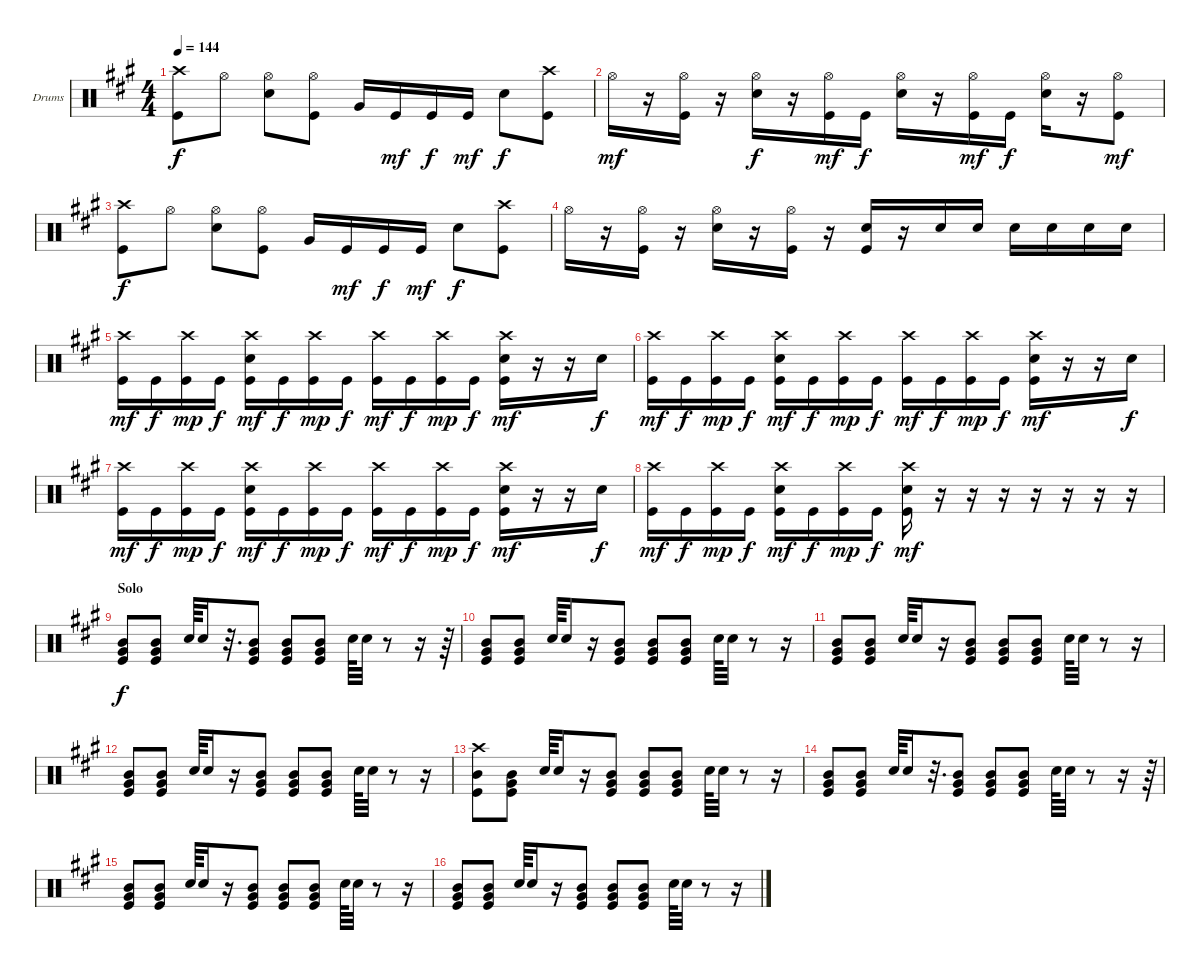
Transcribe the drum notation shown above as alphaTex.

\defaultSystemsLayout 4
\bracketExtendMode groupsimilarinstruments
\firstSystemTrackNameOrientation horizontal
\otherSystemsTrackNameOrientation horizontal
\track ("Drumkit" "Drums") {instrument percussion}
\staff {score}
\articulation defaults
\ts (4 4)
\tempo 144
\clef neutral
\scale
1.05801
\ks a
("Crash high (hit)" "Kick (hit)").8{dy f} "Hi-Hat (open)".8 ("Hi-Hat (open)" "Snare (hit) 2").8 ("Hi-Hat (open)" "Kick (hit)").8 "Very Low Tom (hit)".16 "Kick (hit)".16{dy mf} "Kick (hit)".16{dy f} "Kick (hit)".16{dy mf} "Snare (hit) 2".8{dy f} ("Crash high (hit)" "Kick (hit)").8 |
\scale
0.941992 "Hi-Hat (open)".16{dy mf} r.16 ("Hi-Hat (open)" "Kick (hit)").16 r.16 ("Hi-Hat (open)" "Snare (hit) 2").16{dy f} r.16 ("Hi-Hat (open)" "Kick (hit)").16{dy mf} "Kick (hit)".16{dy f} ("Hi-Hat (open)" "Snare (hit) 2").16 r.16 ("Hi-Hat (open)" "Kick (hit)").16{dy mf} "Kick (hit)".16{dy f} ("Hi-Hat (open)" "Snare (hit) 2").16 r.16 ("Hi-Hat (open)" "Kick (hit)").8{dy mf} |
\scale
1.05801 ("Crash high (hit)" "Kick (hit)").8{dy f} "Hi-Hat (open)".8 ("Hi-Hat (open)" "Snare (hit) 2").8 ("Hi-Hat (open)" "Kick (hit)").8 "Very Low Tom (hit)".16 "Kick (hit)".16{dy mf} "Kick (hit)".16{dy f} "Kick (hit)".16{dy mf} "Snare (hit) 2".8{dy f} ("Crash high (hit)" "Kick (hit)").8 |
\scale
0.941992 "Hi-Hat (open)".16 r.16 ("Hi-Hat (open)" "Kick (hit)").16 r.16 ("Hi-Hat (open)" "Snare (hit) 2").16 r.16 ("Hi-Hat (open)" "Kick (hit)").16 r.16 ("Snare (hit) 2" "Kick (hit)").16 r.16 "Snare (hit) 2".16 "Snare (hit) 2".16 "Snare (hit) 2".16 "Snare (hit) 2".16 "Snare (hit) 2".16 "Snare (hit) 2".16 |
\scale
1.05801 ("Crash high (hit)" "Kick (hit)").16{dy mf} "Kick (hit)".16{dy f} ("Crash high (hit)" "Kick (hit)").16{dy mp} "Kick (hit)".16{dy f} ("Crash high (hit)" "Snare (hit) 2" "Kick (hit)").16{dy mf} "Kick (hit)".16{dy f} ("Crash high (hit)" "Kick (hit)").16{dy mp} "Kick (hit)".16{dy f} ("Crash high (hit)" "Kick (hit)").16{dy mf} "Kick (hit)".16{dy f} ("Crash high (hit)" "Kick (hit)").16{dy mp} "Kick (hit)".16{dy f} ("Crash high (hit)" "Snare (hit) 2" "Kick (hit)").16{dy mf} r.16 r.16 "Snare (hit) 2".16{dy f} |
\scale
0.941992 ("Crash high (hit)" "Kick (hit)").16{dy mf} "Kick (hit)".16{dy f} ("Crash high (hit)" "Kick (hit)").16{dy mp} "Kick (hit)".16{dy f} ("Crash high (hit)" "Snare (hit) 2" "Kick (hit)").16{dy mf} "Kick (hit)".16{dy f} ("Crash high (hit)" "Kick (hit)").16{dy mp} "Kick (hit)".16{dy f} ("Crash high (hit)" "Kick (hit)").16{dy mf} "Kick (hit)".16{dy f} ("Crash high (hit)" "Kick (hit)").16{dy mp} "Kick (hit)".16{dy f} ("Crash high (hit)" "Snare (hit) 2" "Kick (hit)").16{dy mf} r.16 r.16 "Snare (hit) 2".16{dy f} |
\scale
1.05801 ("Crash high (hit)" "Kick (hit)").16{dy mf} "Kick (hit)".16{dy f} ("Crash high (hit)" "Kick (hit)").16{dy mp} "Kick (hit)".16{dy f} ("Crash high (hit)" "Snare (hit) 2" "Kick (hit)").16{dy mf} "Kick (hit)".16{dy f} ("Crash high (hit)" "Kick (hit)").16{dy mp} "Kick (hit)".16{dy f} ("Crash high (hit)" "Kick (hit)").16{dy mf} "Kick (hit)".16{dy f} ("Crash high (hit)" "Kick (hit)").16{dy mp} "Kick (hit)".16{dy f} ("Crash high (hit)" "Snare (hit) 2" "Kick (hit)").16{dy mf} r.16 r.16 "Snare (hit) 2".16{dy f} |
\scale
0.941992 ("Crash high (hit)" "Kick (hit)").16{dy mf} "Kick (hit)".16{dy f} ("Crash high (hit)" "Kick (hit)").16{dy mp} "Kick (hit)".16{dy f} ("Crash high (hit)" "Snare (hit) 2" "Kick (hit)").16{dy mf} "Kick (hit)".16{dy f} ("Crash high (hit)" "Kick (hit)").16{dy mp} "Kick (hit)".16{dy f} ("Crash high (hit)" "Snare (hit) 2" "Kick (hit)").16{dy mf} r.16 r.16 r.16 r.16 r.16 r.16 r.16 |
\section ("" "Solo")
\scale
1.05801 ("Mid Tom (hit)" "Very Low Tom (hit)" "Kick (hit)").8{dy f} ("Mid Tom (hit)" "Very Low Tom (hit)" "Kick (hit)").8 "Snare (hit) 2".64 "Snare (hit) 2".16 r.32{d} ("Mid Tom (hit)" "Very Low Tom (hit)" "Kick (hit)").8 ("Mid Tom (hit)" "Very Low Tom (hit)" "Kick (hit)").8 ("Mid Tom (hit)" "Very Low Tom (hit)" "Kick (hit)").8 "Snare (hit) 2".64 "Snare (hit) 2".32 r.8 r.16 r.64 |
\scale
0.941992 ("Mid Tom (hit)" "Very Low Tom (hit)" "Kick (hit)").8 ("Mid Tom (hit)" "Very Low Tom (hit)" "Kick (hit)").8 "Snare (hit) 2".64 "Snare (hit) 2".16 r.16 ("Mid Tom (hit)" "Very Low Tom (hit)" "Kick (hit)").8 ("Mid Tom (hit)" "Very Low Tom (hit)" "Kick (hit)").8 ("Mid Tom (hit)" "Very Low Tom (hit)" "Kick (hit)").8 "Snare (hit) 2".64 "Snare (hit) 2".32 r.8 r.16 |
\scale
1.05801 ("Mid Tom (hit)" "Very Low Tom (hit)" "Kick (hit)").8 ("Mid Tom (hit)" "Very Low Tom (hit)" "Kick (hit)").8 "Snare (hit) 2".64 "Snare (hit) 2".16 r.16 ("Mid Tom (hit)" "Very Low Tom (hit)" "Kick (hit)").8 ("Mid Tom (hit)" "Very Low Tom (hit)" "Kick (hit)").8 ("Mid Tom (hit)" "Very Low Tom (hit)" "Kick (hit)").8 "Snare (hit) 2".64 "Snare (hit) 2".32 r.8 r.16 |
\scale
0.941992 ("Mid Tom (hit)" "Very Low Tom (hit)" "Kick (hit)").8 ("Mid Tom (hit)" "Very Low Tom (hit)" "Kick (hit)").8 "Snare (hit) 2".64 "Snare (hit) 2".16 r.16 ("Mid Tom (hit)" "Very Low Tom (hit)" "Kick (hit)").8 ("Mid Tom (hit)" "Very Low Tom (hit)" "Kick (hit)").8 ("Mid Tom (hit)" "Very Low Tom (hit)" "Kick (hit)").8 "Snare (hit) 2".64 "Snare (hit) 2".32 r.8 r.16 |
\scale
1.05801 ("Crash high (hit)" "Mid Tom (hit)" "Kick (hit)").8 ("Mid Tom (hit)" "Very Low Tom (hit)" "Kick (hit)").8 "Snare (hit) 2".64 "Snare (hit) 2".16 r.16 ("Mid Tom (hit)" "Very Low Tom (hit)" "Kick (hit)").8 ("Mid Tom (hit)" "Very Low Tom (hit)" "Kick (hit)").8 ("Mid Tom (hit)" "Very Low Tom (hit)" "Kick (hit)").8 "Snare (hit) 2".64 "Snare (hit) 2".32 r.8 r.16 |
\scale
0.941992 ("Mid Tom (hit)" "Very Low Tom (hit)" "Kick (hit)").8 ("Mid Tom (hit)" "Very Low Tom (hit)" "Kick (hit)").8 "Snare (hit) 2".64 "Snare (hit) 2".16 r.32{d} ("Mid Tom (hit)" "Very Low Tom (hit)" "Kick (hit)").8 ("Mid Tom (hit)" "Very Low Tom (hit)" "Kick (hit)").8 ("Mid Tom (hit)" "Very Low Tom (hit)" "Kick (hit)").8 "Snare (hit) 2".64 "Snare (hit) 2".32 r.8 r.16 r.64 |
\scale
1.05801 ("Mid Tom (hit)" "Very Low Tom (hit)" "Kick (hit)").8 ("Mid Tom (hit)" "Very Low Tom (hit)" "Kick (hit)").8 "Snare (hit) 2".64 "Snare (hit) 2".16 r.16 ("Mid Tom (hit)" "Very Low Tom (hit)" "Kick (hit)").8 ("Mid Tom (hit)" "Very Low Tom (hit)" "Kick (hit)").8 ("Mid Tom (hit)" "Very Low Tom (hit)" "Kick (hit)").8 "Snare (hit) 2".64 "Snare (hit) 2".32 r.8 r.16 |
\scale
0.941992 ("Mid Tom (hit)" "Very Low Tom (hit)" "Kick (hit)").8 ("Mid Tom (hit)" "Very Low Tom (hit)" "Kick (hit)").8 "Snare (hit) 2".64 "Snare (hit) 2".16 r.16 ("Mid Tom (hit)" "Very Low Tom (hit)" "Kick (hit)").8 ("Mid Tom (hit)" "Very Low Tom (hit)" "Kick (hit)").8 ("Mid Tom (hit)" "Very Low Tom (hit)" "Kick (hit)").8 "Snare (hit) 2".64 "Snare (hit) 2".32 r.8 r.16
